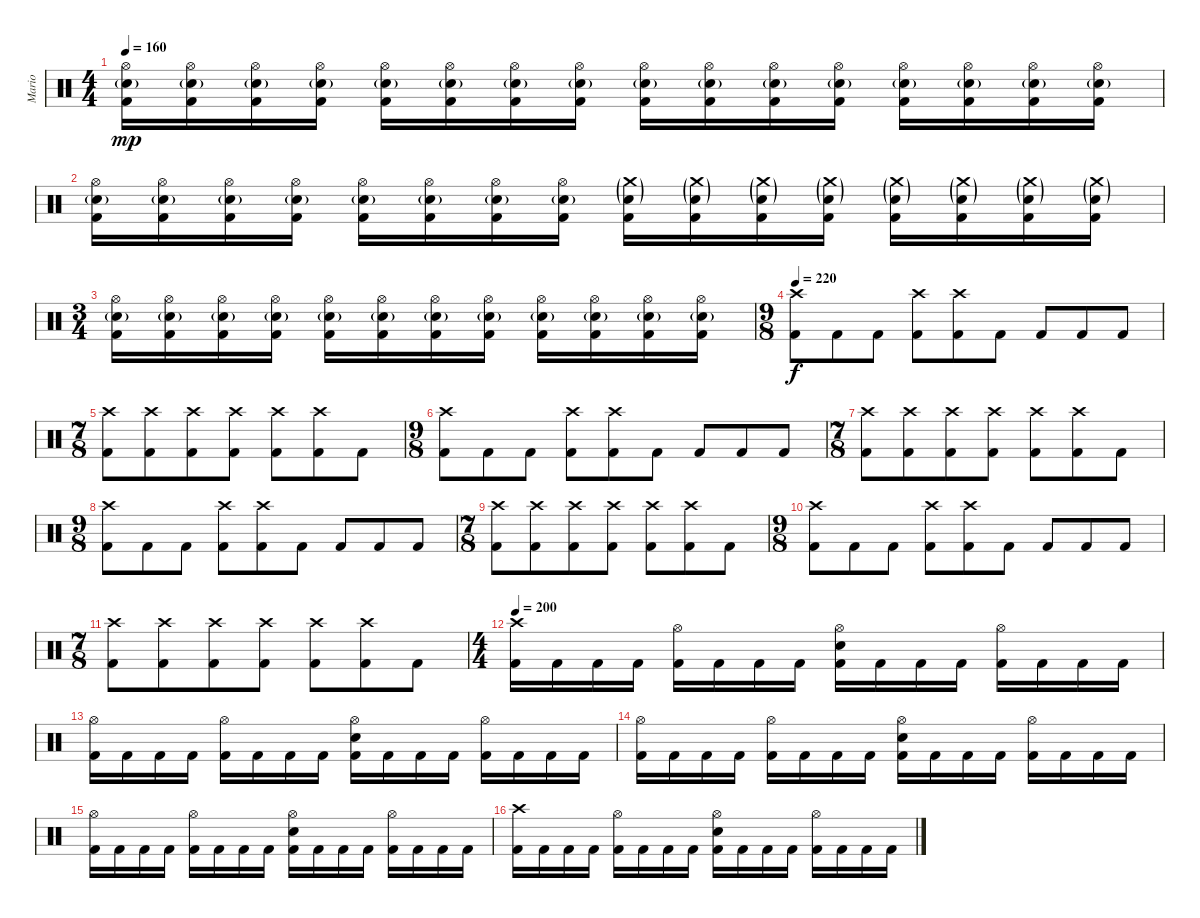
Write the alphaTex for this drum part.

\track ("Mario" "Mario") {instrument percussion}
\staff {score}
\articulation defaults
\ts (4 4)
\tempo 160
\clef neutral
\ks c
("Hi-Hat (open)" "Electric Snare (hit)"{g} "Kick (hit) 2").16{dy mp} ("Hi-Hat (open)" "Electric Snare (hit)"{g} "Kick (hit) 2").16 ("Hi-Hat (open)" "Electric Snare (hit)"{g} "Kick (hit) 2").16 ("Hi-Hat (open)" "Electric Snare (hit)"{g} "Kick (hit) 2").16 ("Hi-Hat (open)" "Electric Snare (hit)"{g} "Kick (hit) 2").16 ("Hi-Hat (open)" "Electric Snare (hit)"{g} "Kick (hit) 2").16 ("Hi-Hat (open)" "Electric Snare (hit)"{g} "Kick (hit) 2").16 ("Hi-Hat (open)" "Electric Snare (hit)"{g} "Kick (hit) 2").16 ("Hi-Hat (open)" "Electric Snare (hit)"{g} "Kick (hit) 2").16 ("Hi-Hat (open)" "Electric Snare (hit)"{g} "Kick (hit) 2").16 ("Hi-Hat (open)" "Electric Snare (hit)"{g} "Kick (hit) 2").16 ("Hi-Hat (open)" "Electric Snare (hit)"{g} "Kick (hit) 2").16 ("Hi-Hat (open)" "Electric Snare (hit)"{g} "Kick (hit) 2").16 ("Hi-Hat (open)" "Electric Snare (hit)"{g} "Kick (hit) 2").16 ("Hi-Hat (open)" "Electric Snare (hit)"{g} "Kick (hit) 2").16 ("Hi-Hat (open)" "Electric Snare (hit)"{g} "Kick (hit) 2").16 |
("Hi-Hat (open)" "Electric Snare (hit)"{g} "Kick (hit) 2").16 ("Hi-Hat (open)" "Electric Snare (hit)"{g} "Kick (hit) 2").16 ("Hi-Hat (open)" "Electric Snare (hit)"{g} "Kick (hit) 2").16 ("Hi-Hat (open)" "Electric Snare (hit)"{g} "Kick (hit) 2").16 ("Hi-Hat (open)" "Electric Snare (hit)"{g} "Kick (hit) 2").16 ("Hi-Hat (open)" "Electric Snare (hit)"{g} "Kick (hit) 2").16 ("Hi-Hat (open)" "Electric Snare (hit)"{g} "Kick (hit) 2").16 ("Hi-Hat (open)" "Electric Snare (hit)"{g} "Kick (hit) 2").16 ("Crash medium (hit)"{g} "Electric Snare (hit)"{g} "Kick (hit) 2").16 ("Crash medium (hit)"{g} "Electric Snare (hit)"{g} "Kick (hit) 2").16 ("Crash medium (hit)"{g} "Electric Snare (hit)"{g} "Kick (hit) 2").16 ("Crash medium (hit)"{g} "Electric Snare (hit)"{g} "Kick (hit) 2").16 ("Crash medium (hit)"{g} "Electric Snare (hit)"{g} "Kick (hit) 2").16 ("Crash medium (hit)"{g} "Electric Snare (hit)"{g} "Kick (hit) 2").16 ("Crash medium (hit)"{g} "Electric Snare (hit)"{g} "Kick (hit) 2").16 ("Crash medium (hit)"{g} "Electric Snare (hit)"{g} "Kick (hit) 2").16 |
\ts (3 4)
("Hi-Hat (open)" "Electric Snare (hit)"{g} "Kick (hit) 2").16 ("Hi-Hat (open)" "Electric Snare (hit)"{g} "Kick (hit) 2").16 ("Hi-Hat (open)" "Electric Snare (hit)"{g} "Kick (hit) 2").16 ("Hi-Hat (open)" "Electric Snare (hit)"{g} "Kick (hit) 2").16 ("Hi-Hat (open)" "Electric Snare (hit)"{g} "Kick (hit) 2").16 ("Hi-Hat (open)" "Electric Snare (hit)"{g} "Kick (hit) 2").16 ("Hi-Hat (open)" "Electric Snare (hit)"{g} "Kick (hit) 2").16 ("Hi-Hat (open)" "Electric Snare (hit)"{g} "Kick (hit) 2").16 ("Hi-Hat (open)" "Electric Snare (hit)"{g} "Kick (hit) 2").16 ("Hi-Hat (open)" "Electric Snare (hit)"{g} "Kick (hit) 2").16 ("Hi-Hat (open)" "Electric Snare (hit)"{g} "Kick (hit) 2").16 ("Hi-Hat (open)" "Electric Snare (hit)"{g} "Kick (hit) 2").16 |
\ts (9 8)
\tempo 220
("Crash high (hit)" "Kick (hit) 2").8{dy f} "Kick (hit) 2".8 "Kick (hit) 2".8 ("Crash high (hit)" "Kick (hit) 2").8 ("Crash high (hit)" "Kick (hit) 2").8 "Kick (hit) 2".8 "Kick (hit) 2".8 "Kick (hit) 2".8 "Kick (hit) 2".8 |
\ts (7 8)
("Crash high (hit)" "Kick (hit) 2").8 ("Crash high (hit)" "Kick (hit) 2").8 ("Crash high (hit)" "Kick (hit) 2").8 ("Crash high (hit)" "Kick (hit) 2").8 ("Crash high (hit)" "Kick (hit) 2").8 ("Crash high (hit)" "Kick (hit) 2").8 "Kick (hit) 2".8 |
\ts (9 8)
("Crash high (hit)" "Kick (hit) 2").8 "Kick (hit) 2".8 "Kick (hit) 2".8 ("Crash high (hit)" "Kick (hit) 2").8 ("Crash high (hit)" "Kick (hit) 2").8 "Kick (hit) 2".8 "Kick (hit) 2".8 "Kick (hit) 2".8 "Kick (hit) 2".8 |
\ts (7 8)
("Crash high (hit)" "Kick (hit) 2").8 ("Crash high (hit)" "Kick (hit) 2").8 ("Crash high (hit)" "Kick (hit) 2").8 ("Crash high (hit)" "Kick (hit) 2").8 ("Crash high (hit)" "Kick (hit) 2").8 ("Crash high (hit)" "Kick (hit) 2").8 "Kick (hit) 2".8 |
\ts (9 8)
("Crash high (hit)" "Kick (hit) 2").8 "Kick (hit) 2".8 "Kick (hit) 2".8 ("Crash high (hit)" "Kick (hit) 2").8 ("Crash high (hit)" "Kick (hit) 2").8 "Kick (hit) 2".8 "Kick (hit) 2".8 "Kick (hit) 2".8 "Kick (hit) 2".8 |
\ts (7 8)
("Crash high (hit)" "Kick (hit) 2").8 ("Crash high (hit)" "Kick (hit) 2").8 ("Crash high (hit)" "Kick (hit) 2").8 ("Crash high (hit)" "Kick (hit) 2").8 ("Crash high (hit)" "Kick (hit) 2").8 ("Crash high (hit)" "Kick (hit) 2").8 "Kick (hit) 2".8 |
\ts (9 8)
("Crash high (hit)" "Kick (hit) 2").8 "Kick (hit) 2".8 "Kick (hit) 2".8 ("Crash high (hit)" "Kick (hit) 2").8 ("Crash high (hit)" "Kick (hit) 2").8 "Kick (hit) 2".8 "Kick (hit) 2".8 "Kick (hit) 2".8 "Kick (hit) 2".8 |
\ts (7 8)
("Crash high (hit)" "Kick (hit) 2").8 ("Crash high (hit)" "Kick (hit) 2").8 ("Crash high (hit)" "Kick (hit) 2").8 ("Crash high (hit)" "Kick (hit) 2").8 ("Crash high (hit)" "Kick (hit) 2").8 ("Crash high (hit)" "Kick (hit) 2").8 "Kick (hit) 2".8 |
\ts (4 4)
\tempo 200
("Crash high (hit)" "Kick (hit) 2").16 "Kick (hit) 2".16 "Kick (hit) 2".16 "Kick (hit) 2".16 ("Hi-Hat (open)" "Kick (hit) 2").16 "Kick (hit) 2".16 "Kick (hit) 2".16 "Kick (hit) 2".16 ("Hi-Hat (open)" "Electric Snare (hit)" "Kick (hit) 2").16 "Kick (hit) 2".16 "Kick (hit) 2".16 "Kick (hit) 2".16 ("Hi-Hat (open)" "Kick (hit) 2").16 "Kick (hit) 2".16 "Kick (hit) 2".16 "Kick (hit) 2".16 |
("Hi-Hat (open)" "Kick (hit) 2").16 "Kick (hit) 2".16 "Kick (hit) 2".16 "Kick (hit) 2".16 ("Hi-Hat (open)" "Kick (hit) 2").16 "Kick (hit) 2".16 "Kick (hit) 2".16 "Kick (hit) 2".16 ("Hi-Hat (open)" "Electric Snare (hit)" "Kick (hit) 2").16 "Kick (hit) 2".16 "Kick (hit) 2".16 "Kick (hit) 2".16 ("Hi-Hat (open)" "Kick (hit) 2").16 "Kick (hit) 2".16 "Kick (hit) 2".16 "Kick (hit) 2".16 |
("Hi-Hat (open)" "Kick (hit) 2").16 "Kick (hit) 2".16 "Kick (hit) 2".16 "Kick (hit) 2".16 ("Hi-Hat (open)" "Kick (hit) 2").16 "Kick (hit) 2".16 "Kick (hit) 2".16 "Kick (hit) 2".16 ("Hi-Hat (open)" "Electric Snare (hit)" "Kick (hit) 2").16 "Kick (hit) 2".16 "Kick (hit) 2".16 "Kick (hit) 2".16 ("Hi-Hat (open)" "Kick (hit) 2").16 "Kick (hit) 2".16 "Kick (hit) 2".16 "Kick (hit) 2".16 |
("Hi-Hat (open)" "Kick (hit) 2").16 "Kick (hit) 2".16 "Kick (hit) 2".16 "Kick (hit) 2".16 ("Hi-Hat (open)" "Kick (hit) 2").16 "Kick (hit) 2".16 "Kick (hit) 2".16 "Kick (hit) 2".16 ("Hi-Hat (open)" "Electric Snare (hit)" "Kick (hit) 2").16 "Kick (hit) 2".16 "Kick (hit) 2".16 "Kick (hit) 2".16 ("Hi-Hat (open)" "Kick (hit) 2").16 "Kick (hit) 2".16 "Kick (hit) 2".16 "Kick (hit) 2".16 |
("Crash high (hit)" "Kick (hit) 2").16 "Kick (hit) 2".16 "Kick (hit) 2".16 "Kick (hit) 2".16 ("Hi-Hat (open)" "Kick (hit) 2").16 "Kick (hit) 2".16 "Kick (hit) 2".16 "Kick (hit) 2".16 ("Hi-Hat (open)" "Electric Snare (hit)" "Kick (hit) 2").16 "Kick (hit) 2".16 "Kick (hit) 2".16 "Kick (hit) 2".16 ("Hi-Hat (open)" "Kick (hit) 2").16 "Kick (hit) 2".16 "Kick (hit) 2".16 "Kick (hit) 2".16
